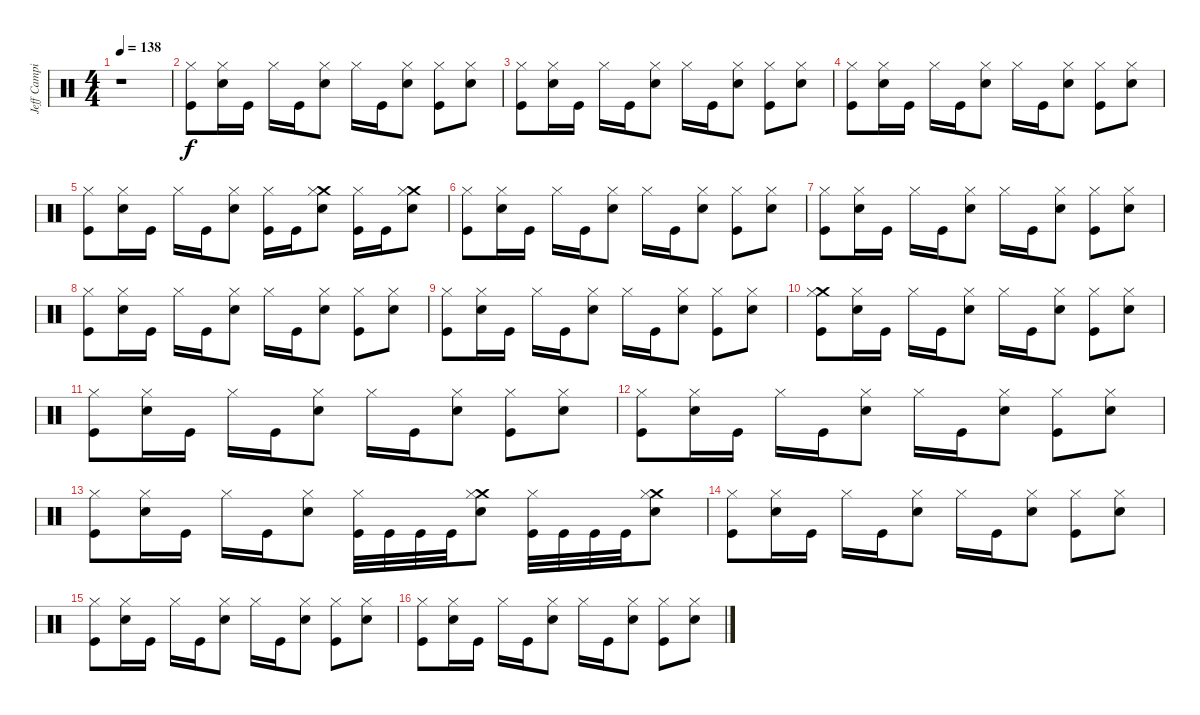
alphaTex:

\track ("Jeff Campitelli" "Jeff Campi") {instrument percussion}
\staff {score}
\articulation defaults
\ts (4 4)
\tempo 138
\clef neutral
\ks c
r.1{dy f} |
("Hi-Hat (closed)" "Kick (hit)").8 ("Electric Snare (hit)" "Hi-Hat (closed)").16 "Kick (hit)".16 "Hi-Hat (closed)".16 "Kick (hit)".16 ("Electric Snare (hit)" "Hi-Hat (closed)").8 "Hi-Hat (closed)".16 "Kick (hit)".16 ("Electric Snare (hit)" "Hi-Hat (closed)").8 ("Hi-Hat (closed)" "Kick (hit)").8 ("Electric Snare (hit)" "Hi-Hat (closed)").8 |
("Hi-Hat (closed)" "Kick (hit)").8 ("Electric Snare (hit)" "Hi-Hat (closed)").16 "Kick (hit)".16 "Hi-Hat (closed)".16 "Kick (hit)".16 ("Electric Snare (hit)" "Hi-Hat (closed)").8 "Hi-Hat (closed)".16 "Kick (hit)".16 ("Electric Snare (hit)" "Hi-Hat (closed)").8 ("Hi-Hat (closed)" "Kick (hit)").8 ("Electric Snare (hit)" "Hi-Hat (closed)").8 |
("Hi-Hat (closed)" "Kick (hit)").8 ("Electric Snare (hit)" "Hi-Hat (closed)").16 "Kick (hit)".16 "Hi-Hat (closed)".16 "Kick (hit)".16 ("Electric Snare (hit)" "Hi-Hat (closed)").8 "Hi-Hat (closed)".16 "Kick (hit)".16 ("Electric Snare (hit)" "Hi-Hat (closed)").8 ("Hi-Hat (closed)" "Kick (hit)").8 ("Electric Snare (hit)" "Hi-Hat (closed)").8 |
("Hi-Hat (closed)" "Kick (hit)").8 ("Electric Snare (hit)" "Hi-Hat (closed)").16 "Kick (hit)".16 "Hi-Hat (closed)".16 "Kick (hit)".16 ("Electric Snare (hit)" "Hi-Hat (closed)").8 ("Hi-Hat (closed)" "Kick (hit)").16 "Kick (hit)".16 ("Crash medium (hit)" "Electric Snare (hit)" "Hi-Hat (closed)").8 ("Hi-Hat (closed)" "Kick (hit)").16 "Kick (hit)".16 ("Crash medium (hit)" "Electric Snare (hit)" "Hi-Hat (closed)").8 |
("Hi-Hat (closed)" "Kick (hit)").8 ("Electric Snare (hit)" "Hi-Hat (closed)").16 "Kick (hit)".16 "Hi-Hat (closed)".16 "Kick (hit)".16 ("Electric Snare (hit)" "Hi-Hat (closed)").8 "Hi-Hat (closed)".16 "Kick (hit)".16 ("Electric Snare (hit)" "Hi-Hat (closed)").8 ("Hi-Hat (closed)" "Kick (hit)").8 ("Electric Snare (hit)" "Hi-Hat (closed)").8 |
("Hi-Hat (closed)" "Kick (hit)").8 ("Electric Snare (hit)" "Hi-Hat (closed)").16 "Kick (hit)".16 "Hi-Hat (closed)".16 "Kick (hit)".16 ("Electric Snare (hit)" "Hi-Hat (closed)").8 "Hi-Hat (closed)".16 "Kick (hit)".16 ("Electric Snare (hit)" "Hi-Hat (closed)").8 ("Hi-Hat (closed)" "Kick (hit)").8 ("Electric Snare (hit)" "Hi-Hat (closed)").8 |
("Hi-Hat (closed)" "Kick (hit)").8 ("Electric Snare (hit)" "Hi-Hat (closed)").16 "Kick (hit)".16 "Hi-Hat (closed)".16 "Kick (hit)".16 ("Electric Snare (hit)" "Hi-Hat (closed)").8 "Hi-Hat (closed)".16 "Kick (hit)".16 ("Electric Snare (hit)" "Hi-Hat (closed)").8 ("Hi-Hat (closed)" "Kick (hit)").8 ("Electric Snare (hit)" "Hi-Hat (closed)").8 |
("Hi-Hat (closed)" "Kick (hit)").8 ("Electric Snare (hit)" "Hi-Hat (closed)").16 "Kick (hit)".16 "Hi-Hat (closed)".16 "Kick (hit)".16 ("Electric Snare (hit)" "Hi-Hat (closed)").8 "Hi-Hat (closed)".16 "Kick (hit)".16 ("Electric Snare (hit)" "Hi-Hat (closed)").8 ("Hi-Hat (closed)" "Kick (hit)").8 ("Electric Snare (hit)" "Hi-Hat (closed)").8 |
("Crash medium (hit)" "Hi-Hat (closed)" "Kick (hit)").8 ("Electric Snare (hit)" "Hi-Hat (closed)").16 "Kick (hit)".16 "Hi-Hat (closed)".16 "Kick (hit)".16 ("Electric Snare (hit)" "Hi-Hat (closed)").8 "Hi-Hat (closed)".16 "Kick (hit)".16 ("Electric Snare (hit)" "Hi-Hat (closed)").8 ("Hi-Hat (closed)" "Kick (hit)").8 ("Electric Snare (hit)" "Hi-Hat (closed)").8 |
("Hi-Hat (closed)" "Kick (hit)").8 ("Electric Snare (hit)" "Hi-Hat (closed)").16 "Kick (hit)".16 "Hi-Hat (closed)".16 "Kick (hit)".16 ("Electric Snare (hit)" "Hi-Hat (closed)").8 "Hi-Hat (closed)".16 "Kick (hit)".16 ("Electric Snare (hit)" "Hi-Hat (closed)").8 ("Hi-Hat (closed)" "Kick (hit)").8 ("Electric Snare (hit)" "Hi-Hat (closed)").8 |
("Hi-Hat (closed)" "Kick (hit)").8 ("Electric Snare (hit)" "Hi-Hat (closed)").16 "Kick (hit)".16 "Hi-Hat (closed)".16 "Kick (hit)".16 ("Electric Snare (hit)" "Hi-Hat (closed)").8 "Hi-Hat (closed)".16 "Kick (hit)".16 ("Electric Snare (hit)" "Hi-Hat (closed)").8 ("Hi-Hat (closed)" "Kick (hit)").8 ("Electric Snare (hit)" "Hi-Hat (closed)").8 |
("Hi-Hat (closed)" "Kick (hit)").8 ("Electric Snare (hit)" "Hi-Hat (closed)").16 "Kick (hit)".16 "Hi-Hat (closed)".16 "Kick (hit)".16 ("Electric Snare (hit)" "Hi-Hat (closed)").8 ("Hi-Hat (closed)" "Kick (hit)").32 "Kick (hit)".32 "Kick (hit)".32 "Kick (hit)".32 ("Crash medium (hit)" "Electric Snare (hit)" "Hi-Hat (closed)").8 ("Hi-Hat (closed)" "Kick (hit)").32 "Kick (hit)".32 "Kick (hit)".32 "Kick (hit)".32 ("Crash medium (hit)" "Electric Snare (hit)" "Hi-Hat (closed)").8 |
("Hi-Hat (closed)" "Kick (hit)").8 ("Electric Snare (hit)" "Hi-Hat (closed)").16 "Kick (hit)".16 "Hi-Hat (closed)".16 "Kick (hit)".16 ("Electric Snare (hit)" "Hi-Hat (closed)").8 "Hi-Hat (closed)".16 "Kick (hit)".16 ("Electric Snare (hit)" "Hi-Hat (closed)").8 ("Hi-Hat (closed)" "Kick (hit)").8 ("Electric Snare (hit)" "Hi-Hat (closed)").8 |
("Hi-Hat (closed)" "Kick (hit)").8 ("Electric Snare (hit)" "Hi-Hat (closed)").16 "Kick (hit)".16 "Hi-Hat (closed)".16 "Kick (hit)".16 ("Electric Snare (hit)" "Hi-Hat (closed)").8 "Hi-Hat (closed)".16 "Kick (hit)".16 ("Electric Snare (hit)" "Hi-Hat (closed)").8 ("Hi-Hat (closed)" "Kick (hit)").8 ("Electric Snare (hit)" "Hi-Hat (closed)").8 |
("Hi-Hat (closed)" "Kick (hit)").8 ("Electric Snare (hit)" "Hi-Hat (closed)").16 "Kick (hit)".16 "Hi-Hat (closed)".16 "Kick (hit)".16 ("Electric Snare (hit)" "Hi-Hat (closed)").8 "Hi-Hat (closed)".16 "Kick (hit)".16 ("Electric Snare (hit)" "Hi-Hat (closed)").8 ("Hi-Hat (closed)" "Kick (hit)").8 ("Electric Snare (hit)" "Hi-Hat (closed)").8
